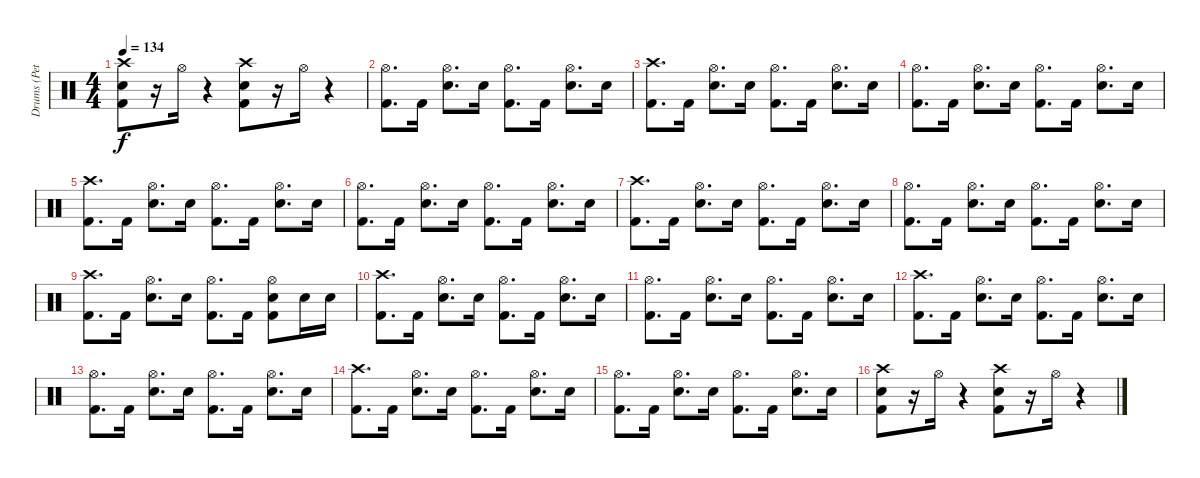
\track ("Drums (Peter Criss)" "Drums (Pet") {instrument percussion}
\staff {score}
\articulation defaults
\ts (4 4)
\tempo 134
\clef neutral
\ks c
("Snare (hit) 2" "Crash high (hit)" "Kick (hit) 2").8{dy f} r.16 "Hi-Hat (open)".16 r.4 ("Snare (hit) 2" "Crash high (hit)" "Kick (hit) 2").8 r.16 "Hi-Hat (open)".16 r.4 |
("Hi-Hat (open)" "Kick (hit) 2").8{d} "Kick (hit) 2".16 ("Snare (hit) 2" "Hi-Hat (open)").8{d} "Snare (hit) 2".16 ("Hi-Hat (open)" "Kick (hit) 2").8{d} "Kick (hit) 2".16 ("Snare (hit) 2" "Hi-Hat (open)").8{d} "Snare (hit) 2".16 |
("Crash high (hit)" "Kick (hit) 2").8{d} "Kick (hit) 2".16 ("Snare (hit) 2" "Hi-Hat (open)").8{d} "Snare (hit) 2".16 ("Hi-Hat (open)" "Kick (hit) 2").8{d} "Kick (hit) 2".16 ("Snare (hit) 2" "Hi-Hat (open)").8{d} "Snare (hit) 2".16 |
("Hi-Hat (open)" "Kick (hit) 2").8{d} "Kick (hit) 2".16 ("Snare (hit) 2" "Hi-Hat (open)").8{d} "Snare (hit) 2".16 ("Hi-Hat (open)" "Kick (hit) 2").8{d} "Kick (hit) 2".16 ("Snare (hit) 2" "Hi-Hat (open)").8{d} "Snare (hit) 2".16 |
("Crash high (hit)" "Kick (hit) 2").8{d} "Kick (hit) 2".16 ("Snare (hit) 2" "Hi-Hat (open)").8{d} "Snare (hit) 2".16 ("Hi-Hat (open)" "Kick (hit) 2").8{d} "Kick (hit) 2".16 ("Snare (hit) 2" "Hi-Hat (open)").8{d} "Snare (hit) 2".16 |
("Hi-Hat (open)" "Kick (hit) 2").8{d} "Kick (hit) 2".16 ("Snare (hit) 2" "Hi-Hat (open)").8{d} "Snare (hit) 2".16 ("Hi-Hat (open)" "Kick (hit) 2").8{d} "Kick (hit) 2".16 ("Snare (hit) 2" "Hi-Hat (open)").8{d} "Snare (hit) 2".16 |
("Crash high (hit)" "Kick (hit) 2").8{d} "Kick (hit) 2".16 ("Snare (hit) 2" "Hi-Hat (open)").8{d} "Snare (hit) 2".16 ("Hi-Hat (open)" "Kick (hit) 2").8{d} "Kick (hit) 2".16 ("Snare (hit) 2" "Hi-Hat (open)").8{d} "Snare (hit) 2".16 |
("Hi-Hat (open)" "Kick (hit) 2").8{d} "Kick (hit) 2".16 ("Snare (hit) 2" "Hi-Hat (open)").8{d} "Snare (hit) 2".16 ("Hi-Hat (open)" "Kick (hit) 2").8{d} "Kick (hit) 2".16 ("Snare (hit) 2" "Hi-Hat (open)").8{d} "Snare (hit) 2".16 |
("Crash high (hit)" "Kick (hit) 2").8{d} "Kick (hit) 2".16 ("Snare (hit) 2" "Hi-Hat (open)").8{d} "Snare (hit) 2".16 ("Hi-Hat (open)" "Kick (hit) 2").8{d} "Kick (hit) 2".16 ("Snare (hit) 2" "Hi-Hat (open)" "Kick (hit) 2").8 "Snare (hit) 2".16 "Snare (hit) 2".16 |
("Crash high (hit)" "Kick (hit) 2").8{d} "Kick (hit) 2".16 ("Snare (hit) 2" "Hi-Hat (open)").8{d} "Snare (hit) 2".16 ("Hi-Hat (open)" "Kick (hit) 2").8{d} "Kick (hit) 2".16 ("Snare (hit) 2" "Hi-Hat (open)").8{d} "Snare (hit) 2".16 |
("Hi-Hat (open)" "Kick (hit) 2").8{d} "Kick (hit) 2".16 ("Snare (hit) 2" "Hi-Hat (open)").8{d} "Snare (hit) 2".16 ("Hi-Hat (open)" "Kick (hit) 2").8{d} "Kick (hit) 2".16 ("Snare (hit) 2" "Hi-Hat (open)").8{d} "Snare (hit) 2".16 |
("Crash high (hit)" "Kick (hit) 2").8{d} "Kick (hit) 2".16 ("Snare (hit) 2" "Hi-Hat (open)").8{d} "Snare (hit) 2".16 ("Hi-Hat (open)" "Kick (hit) 2").8{d} "Kick (hit) 2".16 ("Snare (hit) 2" "Hi-Hat (open)").8{d} "Snare (hit) 2".16 |
("Hi-Hat (open)" "Kick (hit) 2").8{d} "Kick (hit) 2".16 ("Snare (hit) 2" "Hi-Hat (open)").8{d} "Snare (hit) 2".16 ("Hi-Hat (open)" "Kick (hit) 2").8{d} "Kick (hit) 2".16 ("Snare (hit) 2" "Hi-Hat (open)").8{d} "Snare (hit) 2".16 |
("Crash high (hit)" "Kick (hit) 2").8{d} "Kick (hit) 2".16 ("Snare (hit) 2" "Hi-Hat (open)").8{d} "Snare (hit) 2".16 ("Hi-Hat (open)" "Kick (hit) 2").8{d} "Kick (hit) 2".16 ("Snare (hit) 2" "Hi-Hat (open)").8{d} "Snare (hit) 2".16 |
("Hi-Hat (open)" "Kick (hit) 2").8{d} "Kick (hit) 2".16 ("Snare (hit) 2" "Hi-Hat (open)").8{d} "Snare (hit) 2".16 ("Hi-Hat (open)" "Kick (hit) 2").8{d} "Kick (hit) 2".16 ("Snare (hit) 2" "Hi-Hat (open)").8{d} "Snare (hit) 2".16 |
("Snare (hit) 2" "Crash high (hit)" "Kick (hit) 2").8 r.16 "Hi-Hat (open)".16 r.4 ("Snare (hit) 2" "Crash high (hit)" "Kick (hit) 2").8 r.16 "Hi-Hat (open)".16 r.4
